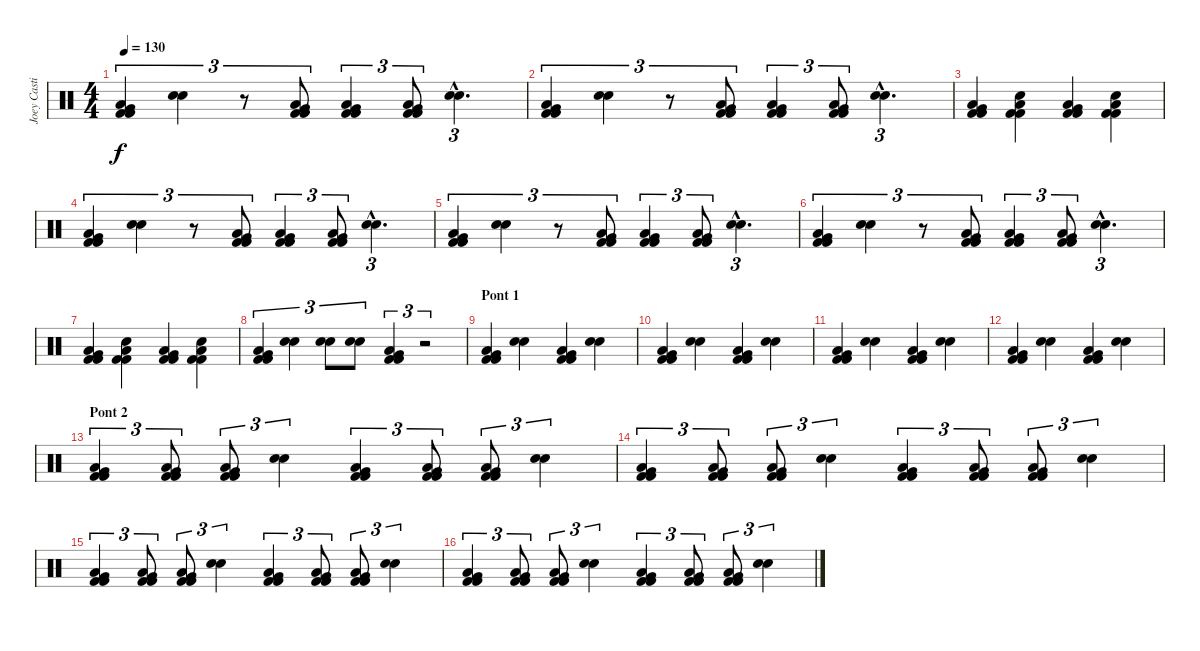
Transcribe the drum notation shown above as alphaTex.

\track ("Joey Castillo" "Joey Casti") {instrument percussion}
\staff {score}
\articulation defaults
\ts (4 4)
\tempo 130
\clef neutral
\ks c
("Low Floor Tom (hit)" "Very Low Tom (hit)" "Kick (hit) 2" "Kick (hit) 2").4{tu (3 2) dy f} ("Electric Snare (hit)" "Electric Snare (hit)").4{tu (3 2)} r.8{tu (3 2)} ("Low Floor Tom (hit)" "Very Low Tom (hit)" "Kick (hit) 2" "Kick (hit) 2").8{tu (3 2)} ("Low Floor Tom (hit)" "Very Low Tom (hit)" "Kick (hit) 2" "Kick (hit) 2").4{tu (3 2)} ("Low Floor Tom (hit)" "Very Low Tom (hit)" "Kick (hit) 2" "Kick (hit) 2").8{tu (3 2)} ("Electric Snare (hit)"{hac} "Electric Snare (hit)"{hac}).4{d tu (3 2)} |
("Low Floor Tom (hit)" "Very Low Tom (hit)" "Kick (hit) 2" "Kick (hit) 2").4{tu (3 2)} ("Electric Snare (hit)" "Electric Snare (hit)").4{tu (3 2)} r.8{tu (3 2)} ("Low Floor Tom (hit)" "Very Low Tom (hit)" "Kick (hit) 2" "Kick (hit) 2").8{tu (3 2)} ("Low Floor Tom (hit)" "Very Low Tom (hit)" "Kick (hit) 2" "Kick (hit) 2").4{tu (3 2)} ("Low Floor Tom (hit)" "Very Low Tom (hit)" "Kick (hit) 2" "Kick (hit) 2").8{tu (3 2)} ("Electric Snare (hit)"{hac} "Electric Snare (hit)"{hac}).4{d tu (3 2)} |
("Low Floor Tom (hit)" "Very Low Tom (hit)" "Kick (hit) 2" "Kick (hit) 2").4 ("Low Floor Tom (hit)" "Electric Snare (hit)" "Kick (hit) 2" "Kick (hit) 2").4 ("Low Floor Tom (hit)" "Very Low Tom (hit)" "Kick (hit) 2" "Kick (hit) 2").4 ("Low Floor Tom (hit)" "Electric Snare (hit)" "Kick (hit) 2" "Kick (hit) 2").4 |
("Low Floor Tom (hit)" "Very Low Tom (hit)" "Kick (hit) 2" "Kick (hit) 2").4{tu (3 2)} ("Electric Snare (hit)" "Electric Snare (hit)").4{tu (3 2)} r.8{tu (3 2)} ("Low Floor Tom (hit)" "Very Low Tom (hit)" "Kick (hit) 2" "Kick (hit) 2").8{tu (3 2)} ("Low Floor Tom (hit)" "Very Low Tom (hit)" "Kick (hit) 2" "Kick (hit) 2").4{tu (3 2)} ("Low Floor Tom (hit)" "Very Low Tom (hit)" "Kick (hit) 2" "Kick (hit) 2").8{tu (3 2)} ("Electric Snare (hit)"{hac} "Electric Snare (hit)"{hac}).4{d tu (3 2)} |
("Low Floor Tom (hit)" "Very Low Tom (hit)" "Kick (hit) 2" "Kick (hit) 2").4{tu (3 2)} ("Electric Snare (hit)" "Electric Snare (hit)").4{tu (3 2)} r.8{tu (3 2)} ("Low Floor Tom (hit)" "Very Low Tom (hit)" "Kick (hit) 2" "Kick (hit) 2").8{tu (3 2)} ("Low Floor Tom (hit)" "Very Low Tom (hit)" "Kick (hit) 2" "Kick (hit) 2").4{tu (3 2)} ("Low Floor Tom (hit)" "Very Low Tom (hit)" "Kick (hit) 2" "Kick (hit) 2").8{tu (3 2)} ("Electric Snare (hit)"{hac} "Electric Snare (hit)"{hac}).4{d tu (3 2)} |
("Low Floor Tom (hit)" "Very Low Tom (hit)" "Kick (hit) 2" "Kick (hit) 2").4{tu (3 2)} ("Electric Snare (hit)" "Electric Snare (hit)").4{tu (3 2)} r.8{tu (3 2)} ("Low Floor Tom (hit)" "Very Low Tom (hit)" "Kick (hit) 2" "Kick (hit) 2").8{tu (3 2)} ("Low Floor Tom (hit)" "Very Low Tom (hit)" "Kick (hit) 2" "Kick (hit) 2").4{tu (3 2)} ("Low Floor Tom (hit)" "Very Low Tom (hit)" "Kick (hit) 2" "Kick (hit) 2").8{tu (3 2)} ("Electric Snare (hit)"{hac} "Electric Snare (hit)"{hac}).4{d tu (3 2)} |
("Low Floor Tom (hit)" "Very Low Tom (hit)" "Kick (hit) 2" "Kick (hit) 2").4 ("Low Floor Tom (hit)" "Electric Snare (hit)" "Kick (hit) 2" "Kick (hit) 2").4 ("Low Floor Tom (hit)" "Very Low Tom (hit)" "Kick (hit) 2" "Kick (hit) 2").4 ("Low Floor Tom (hit)" "Electric Snare (hit)" "Kick (hit) 2" "Kick (hit) 2").4 |
("Low Floor Tom (hit)" "Very Low Tom (hit)" "Kick (hit) 2" "Kick (hit) 2").4{tu (3 2)} ("Electric Snare (hit)" "Electric Snare (hit)").4{tu (3 2)} ("Electric Snare (hit)" "Electric Snare (hit)").8{tu (3 2)} ("Electric Snare (hit)" "Electric Snare (hit)").8{tu (3 2)} ("Low Floor Tom (hit)" "Very Low Tom (hit)" "Kick (hit) 2" "Kick (hit) 2").4{tu (3 2)} r.2{tu (3 2)} |
\section ("" "Pont 1")
("Low Floor Tom (hit)" "Very Low Tom (hit)" "Kick (hit) 2" "Kick (hit) 2").4 ("Electric Snare (hit)" "Electric Snare (hit)").4 ("Low Floor Tom (hit)" "Very Low Tom (hit)" "Kick (hit) 2" "Kick (hit) 2").4 ("Electric Snare (hit)" "Electric Snare (hit)").4 |
("Low Floor Tom (hit)" "Very Low Tom (hit)" "Kick (hit) 2" "Kick (hit) 2").4 ("Electric Snare (hit)" "Electric Snare (hit)").4 ("Low Floor Tom (hit)" "Very Low Tom (hit)" "Kick (hit) 2" "Kick (hit) 2").4 ("Electric Snare (hit)" "Electric Snare (hit)").4 |
("Low Floor Tom (hit)" "Very Low Tom (hit)" "Kick (hit) 2" "Kick (hit) 2").4 ("Electric Snare (hit)" "Electric Snare (hit)").4 ("Low Floor Tom (hit)" "Very Low Tom (hit)" "Kick (hit) 2" "Kick (hit) 2").4 ("Electric Snare (hit)" "Electric Snare (hit)").4 |
("Low Floor Tom (hit)" "Very Low Tom (hit)" "Kick (hit) 2" "Kick (hit) 2").4 ("Electric Snare (hit)" "Electric Snare (hit)").4 ("Low Floor Tom (hit)" "Very Low Tom (hit)" "Kick (hit) 2" "Kick (hit) 2").4 ("Electric Snare (hit)" "Electric Snare (hit)").4 |
\section ("" "Pont 2")
("Low Floor Tom (hit)" "Very Low Tom (hit)" "Kick (hit) 2" "Kick (hit) 2").4{tu (3 2)} ("Low Floor Tom (hit)" "Very Low Tom (hit)" "Kick (hit) 2" "Kick (hit) 2").8{tu (3 2)} ("Low Floor Tom (hit)" "Very Low Tom (hit)" "Kick (hit) 2" "Kick (hit) 2").8{tu (3 2)} ("Electric Snare (hit)" "Electric Snare (hit)").4{tu (3 2)} ("Low Floor Tom (hit)" "Very Low Tom (hit)" "Kick (hit) 2" "Kick (hit) 2").4{tu (3 2)} ("Low Floor Tom (hit)" "Very Low Tom (hit)" "Kick (hit) 2" "Kick (hit) 2").8{tu (3 2)} ("Low Floor Tom (hit)" "Very Low Tom (hit)" "Kick (hit) 2" "Kick (hit) 2").8{tu (3 2)} ("Electric Snare (hit)" "Electric Snare (hit)").4{tu (3 2)} |
("Low Floor Tom (hit)" "Very Low Tom (hit)" "Kick (hit) 2" "Kick (hit) 2").4{tu (3 2)} ("Low Floor Tom (hit)" "Very Low Tom (hit)" "Kick (hit) 2" "Kick (hit) 2").8{tu (3 2)} ("Low Floor Tom (hit)" "Very Low Tom (hit)" "Kick (hit) 2" "Kick (hit) 2").8{tu (3 2)} ("Electric Snare (hit)" "Electric Snare (hit)").4{tu (3 2)} ("Low Floor Tom (hit)" "Very Low Tom (hit)" "Kick (hit) 2" "Kick (hit) 2").4{tu (3 2)} ("Low Floor Tom (hit)" "Very Low Tom (hit)" "Kick (hit) 2" "Kick (hit) 2").8{tu (3 2)} ("Low Floor Tom (hit)" "Very Low Tom (hit)" "Kick (hit) 2" "Kick (hit) 2").8{tu (3 2)} ("Electric Snare (hit)" "Electric Snare (hit)").4{tu (3 2)} |
("Low Floor Tom (hit)" "Very Low Tom (hit)" "Kick (hit) 2" "Kick (hit) 2").4{tu (3 2)} ("Low Floor Tom (hit)" "Very Low Tom (hit)" "Kick (hit) 2" "Kick (hit) 2").8{tu (3 2)} ("Low Floor Tom (hit)" "Very Low Tom (hit)" "Kick (hit) 2" "Kick (hit) 2").8{tu (3 2)} ("Electric Snare (hit)" "Electric Snare (hit)").4{tu (3 2)} ("Low Floor Tom (hit)" "Very Low Tom (hit)" "Kick (hit) 2" "Kick (hit) 2").4{tu (3 2)} ("Low Floor Tom (hit)" "Very Low Tom (hit)" "Kick (hit) 2" "Kick (hit) 2").8{tu (3 2)} ("Low Floor Tom (hit)" "Very Low Tom (hit)" "Kick (hit) 2" "Kick (hit) 2").8{tu (3 2)} ("Electric Snare (hit)" "Electric Snare (hit)").4{tu (3 2)} |
("Low Floor Tom (hit)" "Very Low Tom (hit)" "Kick (hit) 2" "Kick (hit) 2").4{tu (3 2)} ("Low Floor Tom (hit)" "Very Low Tom (hit)" "Kick (hit) 2" "Kick (hit) 2").8{tu (3 2)} ("Low Floor Tom (hit)" "Very Low Tom (hit)" "Kick (hit) 2" "Kick (hit) 2").8{tu (3 2)} ("Electric Snare (hit)" "Electric Snare (hit)").4{tu (3 2)} ("Low Floor Tom (hit)" "Very Low Tom (hit)" "Kick (hit) 2" "Kick (hit) 2").4{tu (3 2)} ("Low Floor Tom (hit)" "Very Low Tom (hit)" "Kick (hit) 2" "Kick (hit) 2").8{tu (3 2)} ("Low Floor Tom (hit)" "Very Low Tom (hit)" "Kick (hit) 2" "Kick (hit) 2").8{tu (3 2)} ("Electric Snare (hit)" "Electric Snare (hit)").4{tu (3 2)}
